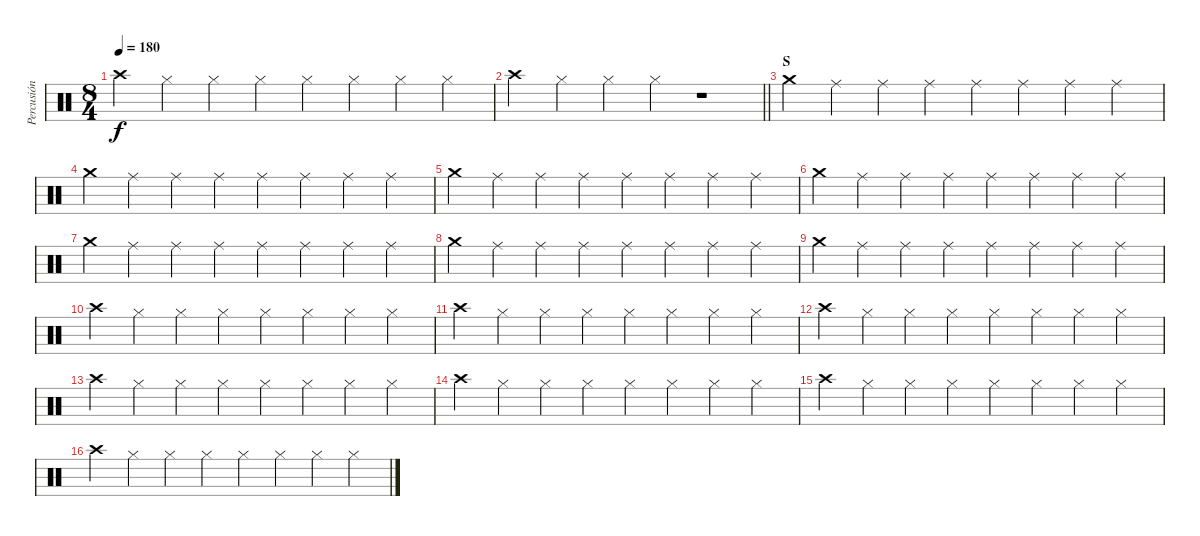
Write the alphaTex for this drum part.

\track ("Percusión" "Percusión") {instrument percussion}
\staff {score}
\articulation defaults
\ts (8 4)
\tempo 180
\clef neutral
\ks c "Crash high (hit)".4{dy f} "Hi-Hat (closed)".4 "Hi-Hat (closed)".4 "Hi-Hat (closed)".4 "Hi-Hat (closed)".4 "Hi-Hat (closed)".4 "Hi-Hat (closed)".4 "Hi-Hat (closed)".4
|
\barLineRight lightlight "Crash high (hit)".4 "Hi-Hat (closed)".4 "Hi-Hat (closed)".4 "Hi-Hat (closed)".4
r.1 |
\section ("" "S")
"Crash medium (hit)".4 "Ride (middle)".4 "Ride (middle)".4 "Ride (middle)".4 "Ride (middle)".4 "Ride (middle)".4 "Ride (middle)".4 "Ride (middle)".4 |
"Crash medium (hit)".4 "Ride (middle)".4 "Ride (middle)".4 "Ride (middle)".4 "Ride (middle)".4 "Ride (middle)".4 "Ride (middle)".4 "Ride (middle)".4 |
"Crash medium (hit)".4 "Ride (middle)".4 "Ride (middle)".4 "Ride (middle)".4 "Ride (middle)".4 "Ride (middle)".4 "Ride (middle)".4 "Ride (middle)".4 |
"Crash medium (hit)".4 "Ride (middle)".4 "Ride (middle)".4 "Ride (middle)".4 "Ride (middle)".4 "Ride (middle)".4 "Ride (middle)".4 "Ride (middle)".4 |
"Crash medium (hit)".4 "Ride (middle)".4 "Ride (middle)".4 "Ride (middle)".4 "Ride (middle)".4 "Ride (middle)".4 "Ride (middle)".4 "Ride (middle)".4 |
"Crash medium (hit)".4 "Ride (middle)".4 "Ride (middle)".4 "Ride (middle)".4 "Ride (middle)".4 "Ride (middle)".4 "Ride (middle)".4 "Ride (middle)".4 |
"Crash medium (hit)".4 "Ride (middle)".4 "Ride (middle)".4 "Ride (middle)".4 "Ride (middle)".4 "Ride (middle)".4 "Ride (middle)".4 "Ride (middle)".4 |
"Crash high (hit)".4 "Hi-Hat (closed)".4 "Hi-Hat (closed)".4 "Hi-Hat (closed)".4 "Hi-Hat (closed)".4 "Hi-Hat (closed)".4 "Hi-Hat (closed)".4 "Hi-Hat (closed)".4 |
"Crash high (hit)".4 "Hi-Hat (closed)".4 "Hi-Hat (closed)".4 "Hi-Hat (closed)".4 "Hi-Hat (closed)".4 "Hi-Hat (closed)".4 "Hi-Hat (closed)".4 "Hi-Hat (closed)".4 |
"Crash high (hit)".4 "Hi-Hat (closed)".4 "Hi-Hat (closed)".4 "Hi-Hat (closed)".4 "Hi-Hat (closed)".4 "Hi-Hat (closed)".4 "Hi-Hat (closed)".4 "Hi-Hat (closed)".4 |
"Crash high (hit)".4 "Hi-Hat (closed)".4 "Hi-Hat (closed)".4 "Hi-Hat (closed)".4 "Hi-Hat (closed)".4 "Hi-Hat (closed)".4 "Hi-Hat (closed)".4 "Hi-Hat (closed)".4 |
"Crash high (hit)".4 "Hi-Hat (closed)".4 "Hi-Hat (closed)".4 "Hi-Hat (closed)".4 "Hi-Hat (closed)".4 "Hi-Hat (closed)".4 "Hi-Hat (closed)".4 "Hi-Hat (closed)".4 |
"Crash high (hit)".4 "Hi-Hat (closed)".4 "Hi-Hat (closed)".4 "Hi-Hat (closed)".4 "Hi-Hat (closed)".4 "Hi-Hat (closed)".4 "Hi-Hat (closed)".4 "Hi-Hat (closed)".4 |
"Crash high (hit)".4 "Hi-Hat (closed)".4 "Hi-Hat (closed)".4 "Hi-Hat (closed)".4 "Hi-Hat (closed)".4 "Hi-Hat (closed)".4 "Hi-Hat (closed)".4 "Hi-Hat (closed)".4
